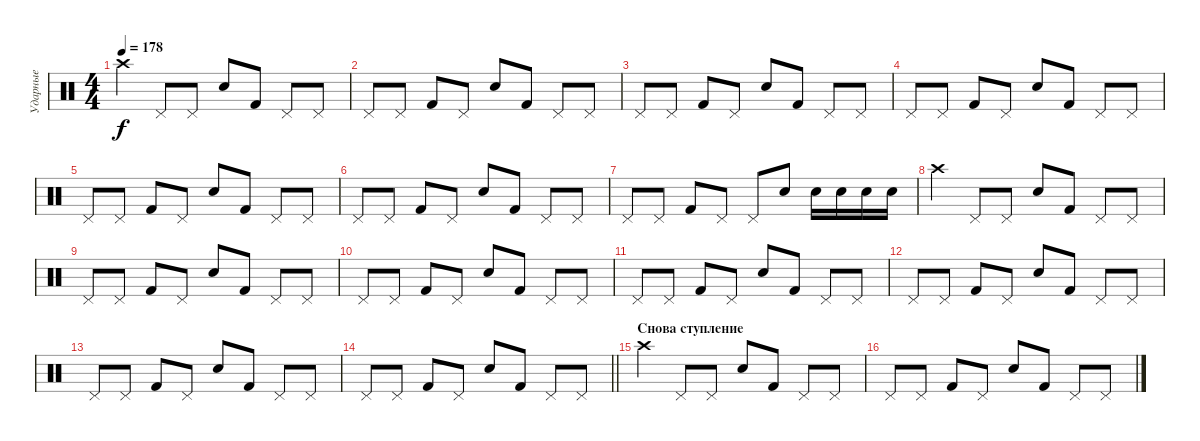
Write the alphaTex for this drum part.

\track ("Ударные" "Ударные") {instrument percussion}
\staff {score}
\articulation defaults
\ts (4 4)
\tempo 178
\clef neutral
\ks c "Crash high (hit)".4{dy f} "Pedal Hi-Hat (hit)".8 "Pedal Hi-Hat (hit)".8 "Electric Snare (hit)".8 "Kick (hit) 2".8 "Pedal Hi-Hat (hit)".8 "Pedal Hi-Hat (hit)".8
|
"Pedal Hi-Hat (hit)".8 "Pedal Hi-Hat (hit)".8 "Kick (hit) 2".8 "Pedal Hi-Hat (hit)".8 "Electric Snare (hit)".8 "Kick (hit) 2".8 "Pedal Hi-Hat (hit)".8 "Pedal Hi-Hat (hit)".8 |
"Pedal Hi-Hat (hit)".8 "Pedal Hi-Hat (hit)".8 "Kick (hit) 2".8 "Pedal Hi-Hat (hit)".8 "Electric Snare (hit)".8 "Kick (hit) 2".8 "Pedal Hi-Hat (hit)".8 "Pedal Hi-Hat (hit)".8 |
"Pedal Hi-Hat (hit)".8 "Pedal Hi-Hat (hit)".8 "Kick (hit) 2".8 "Pedal Hi-Hat (hit)".8 "Electric Snare (hit)".8 "Kick (hit) 2".8 "Pedal Hi-Hat (hit)".8 "Pedal Hi-Hat (hit)".8 |
"Pedal Hi-Hat (hit)".8 "Pedal Hi-Hat (hit)".8 "Kick (hit) 2".8 "Pedal Hi-Hat (hit)".8 "Electric Snare (hit)".8 "Kick (hit) 2".8 "Pedal Hi-Hat (hit)".8 "Pedal Hi-Hat (hit)".8 |
"Pedal Hi-Hat (hit)".8 "Pedal Hi-Hat (hit)".8 "Kick (hit) 2".8 "Pedal Hi-Hat (hit)".8 "Electric Snare (hit)".8 "Kick (hit) 2".8 "Pedal Hi-Hat (hit)".8 "Pedal Hi-Hat (hit)".8 |
"Pedal Hi-Hat (hit)".8 "Pedal Hi-Hat (hit)".8 "Kick (hit) 2".8 "Pedal Hi-Hat (hit)".8 "Pedal Hi-Hat (hit)".8 "Electric Snare (hit)".8 "Electric Snare (hit)".16 "Electric Snare (hit)".16 "Electric Snare (hit)".16 "Electric Snare (hit)".16 |
"Crash high (hit)".4 "Pedal Hi-Hat (hit)".8 "Pedal Hi-Hat (hit)".8 "Electric Snare (hit)".8 "Kick (hit) 2".8 "Pedal Hi-Hat (hit)".8 "Pedal Hi-Hat (hit)".8 |
"Pedal Hi-Hat (hit)".8 "Pedal Hi-Hat (hit)".8 "Kick (hit) 2".8 "Pedal Hi-Hat (hit)".8 "Electric Snare (hit)".8 "Kick (hit) 2".8 "Pedal Hi-Hat (hit)".8 "Pedal Hi-Hat (hit)".8 |
"Pedal Hi-Hat (hit)".8 "Pedal Hi-Hat (hit)".8 "Kick (hit) 2".8 "Pedal Hi-Hat (hit)".8 "Electric Snare (hit)".8 "Kick (hit) 2".8 "Pedal Hi-Hat (hit)".8 "Pedal Hi-Hat (hit)".8 |
"Pedal Hi-Hat (hit)".8 "Pedal Hi-Hat (hit)".8 "Kick (hit) 2".8 "Pedal Hi-Hat (hit)".8 "Electric Snare (hit)".8 "Kick (hit) 2".8 "Pedal Hi-Hat (hit)".8 "Pedal Hi-Hat (hit)".8 |
"Pedal Hi-Hat (hit)".8 "Pedal Hi-Hat (hit)".8 "Kick (hit) 2".8 "Pedal Hi-Hat (hit)".8 "Electric Snare (hit)".8 "Kick (hit) 2".8 "Pedal Hi-Hat (hit)".8 "Pedal Hi-Hat (hit)".8 |
"Pedal Hi-Hat (hit)".8 "Pedal Hi-Hat (hit)".8 "Kick (hit) 2".8 "Pedal Hi-Hat (hit)".8 "Electric Snare (hit)".8 "Kick (hit) 2".8 "Pedal Hi-Hat (hit)".8 "Pedal Hi-Hat (hit)".8 |
\barLineRight lightlight "Pedal Hi-Hat (hit)".8 "Pedal Hi-Hat (hit)".8 "Kick (hit) 2".8 "Pedal Hi-Hat (hit)".8 "Electric Snare (hit)".8 "Kick (hit) 2".8 "Pedal Hi-Hat (hit)".8 "Pedal Hi-Hat (hit)".8
|
\section ("" "Снова ступление")
"Crash high (hit)".4 "Pedal Hi-Hat (hit)".8 "Pedal Hi-Hat (hit)".8 "Electric Snare (hit)".8 "Kick (hit) 2".8 "Pedal Hi-Hat (hit)".8 "Pedal Hi-Hat (hit)".8 |
"Pedal Hi-Hat (hit)".8 "Pedal Hi-Hat (hit)".8 "Kick (hit) 2".8 "Pedal Hi-Hat (hit)".8 "Electric Snare (hit)".8 "Kick (hit) 2".8 "Pedal Hi-Hat (hit)".8 "Pedal Hi-Hat (hit)".8
